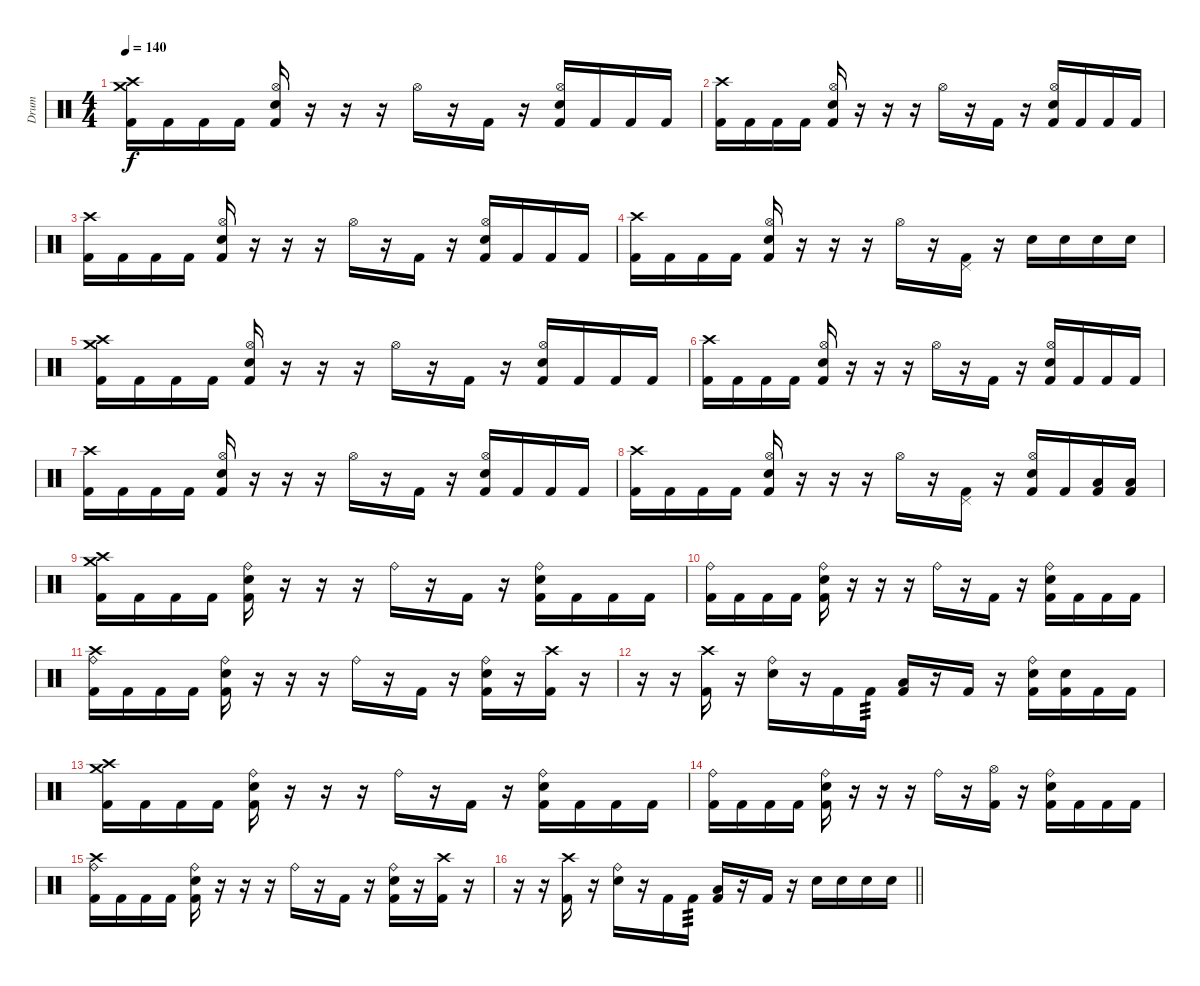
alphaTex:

\track ("Drum" "Drum") {instrument percussion}
\staff {score}
\articulation defaults
\ts (4 4)
\section ("" "")
\tempo 140
\clef neutral
\ks c
("Crash high (hit)" "Crash medium (hit)" "Kick (hit) 2").16{dy f} "Kick (hit) 2".16 "Kick (hit) 2".16 "Kick (hit) 2".16 ("Hi-Hat (open)" "Snare (hit) 2" "Kick (hit) 2").16 r.16 r.16 r.16 "Hi-Hat (open)".16 r.16 "Kick (hit) 2".16 r.16 ("Hi-Hat (open)" "Snare (hit) 2" "Kick (hit) 2").16 "Kick (hit) 2".16 "Kick (hit) 2".16 "Kick (hit) 2".16 |
("Crash high (hit)" "Kick (hit) 2").16 "Kick (hit) 2".16 "Kick (hit) 2".16 "Kick (hit) 2".16 ("Hi-Hat (open)" "Snare (hit) 2" "Kick (hit) 2").16 r.16 r.16 r.16 "Hi-Hat (open)".16 r.16 "Kick (hit) 2".16 r.16 ("Hi-Hat (open)" "Snare (hit) 2" "Kick (hit) 2").16 "Kick (hit) 2".16 "Kick (hit) 2".16 "Kick (hit) 2".16 |
("Crash high (hit)" "Kick (hit) 2").16 "Kick (hit) 2".16 "Kick (hit) 2".16 "Kick (hit) 2".16 ("Hi-Hat (open)" "Snare (hit) 2" "Kick (hit) 2").16 r.16 r.16 r.16 "Hi-Hat (open)".16 r.16 "Kick (hit) 2".16 r.16 ("Hi-Hat (open)" "Snare (hit) 2" "Kick (hit) 2").16 "Kick (hit) 2".16 "Kick (hit) 2".16 "Kick (hit) 2".16 |
("Crash high (hit)" "Kick (hit) 2").16 "Kick (hit) 2".16 "Kick (hit) 2".16 "Kick (hit) 2".16 ("Hi-Hat (open)" "Snare (hit) 2" "Kick (hit) 2").16 r.16 r.16 r.16 "Hi-Hat (open)".16 r.16 ("Pedal Hi-Hat (hit)" "Kick (hit) 2").16 r.16 "Snare (hit) 2".16 "Snare (hit) 2".16 "Snare (hit) 2".16 "Snare (hit) 2".16 |
("Crash high (hit)" "Crash medium (hit)" "Kick (hit) 2").16 "Kick (hit) 2".16 "Kick (hit) 2".16 "Kick (hit) 2".16 ("Hi-Hat (open)" "Snare (hit) 2" "Kick (hit) 2").16 r.16 r.16 r.16 "Hi-Hat (open)".16 r.16 "Kick (hit) 2".16 r.16 ("Hi-Hat (open)" "Snare (hit) 2" "Kick (hit) 2").16 "Kick (hit) 2".16 "Kick (hit) 2".16 "Kick (hit) 2".16 |
("Crash high (hit)" "Kick (hit) 2").16 "Kick (hit) 2".16 "Kick (hit) 2".16 "Kick (hit) 2".16 ("Hi-Hat (open)" "Snare (hit) 2" "Kick (hit) 2").16 r.16 r.16 r.16 "Hi-Hat (open)".16 r.16 "Kick (hit) 2".16 r.16 ("Hi-Hat (open)" "Snare (hit) 2" "Kick (hit) 2").16 "Kick (hit) 2".16 "Kick (hit) 2".16 "Kick (hit) 2".16 |
("Crash high (hit)" "Kick (hit) 2").16 "Kick (hit) 2".16 "Kick (hit) 2".16 "Kick (hit) 2".16 ("Hi-Hat (open)" "Snare (hit) 2" "Kick (hit) 2").16 r.16 r.16 r.16 "Hi-Hat (open)".16 r.16 "Kick (hit) 2".16 r.16 ("Hi-Hat (open)" "Snare (hit) 2" "Kick (hit) 2").16 "Kick (hit) 2".16 "Kick (hit) 2".16 "Kick (hit) 2".16 |
("Crash high (hit)" "Kick (hit) 2").16 "Kick (hit) 2".16 "Kick (hit) 2".16 "Kick (hit) 2".16 ("Hi-Hat (open)" "Snare (hit) 2" "Kick (hit) 2").16 r.16 r.16 r.16 "Hi-Hat (open)".16 r.16 ("Pedal Hi-Hat (hit)" "Kick (hit) 2").16 r.16 ("Hi-Hat (open)" "Snare (hit) 2" "Kick (hit) 2").16 "Kick (hit) 2".16 ("Low Tom (hit)" "Kick (hit) 2").16 ("Low Tom (hit)" "Kick (hit) 2").16 |
("Crash high (hit)" "Crash medium (hit)" "Kick (hit) 2").16 "Kick (hit) 2".16 "Kick (hit) 2".16 "Kick (hit) 2".16 ("Ride (bell)" "Snare (hit) 2" "Kick (hit) 2").16 r.16 r.16 r.16 "Ride (bell)".16 r.16 "Kick (hit) 2".16 r.16 ("Ride (bell)" "Snare (hit) 2" "Kick (hit) 2").16 "Kick (hit) 2".16 "Kick (hit) 2".16 "Kick (hit) 2".16 |
("Ride (bell)" "Kick (hit) 2").16 "Kick (hit) 2".16 "Kick (hit) 2".16 "Kick (hit) 2".16 ("Ride (bell)" "Snare (hit) 2" "Kick (hit) 2").16 r.16 r.16 r.16 "Ride (bell)".16 r.16 "Kick (hit) 2".16 r.16 ("Ride (bell)" "Snare (hit) 2" "Kick (hit) 2").16 "Kick (hit) 2".16 "Kick (hit) 2".16 "Kick (hit) 2".16 |
("Crash high (hit)" "Ride (bell)" "Kick (hit) 2").16 "Kick (hit) 2".16 "Kick (hit) 2".16 "Kick (hit) 2".16 ("Ride (bell)" "Snare (hit) 2" "Kick (hit) 2").16 r.16 r.16 r.16 "Ride (bell)".16 r.16 "Kick (hit) 2".16 r.16 ("Ride (bell)" "Snare (hit) 2" "Kick (hit) 2").16 r.16 ("Crash high (hit)" "Kick (hit) 2").16 r.16 |
r.16 r.16 ("Crash high (hit)" "Kick (hit) 2").16 r.16 ("Ride (bell)" "Snare (hit) 2").16 r.16 "Kick (hit) 2".16 "Kick (hit) 2".16{tp 3} ("Low Floor Tom (hit)" "Kick (hit) 2").16 r.16 "Kick (hit) 2".16 r.16 ("Ride (bell)" "Snare (hit) 2" "Kick (hit) 2").16 ("Snare (hit) 2" "Kick (hit) 2").16 "Kick (hit) 2".16 "Kick (hit) 2".16 |
("Crash high (hit)" "Crash medium (hit)" "Kick (hit) 2").16 "Kick (hit) 2".16 "Kick (hit) 2".16 "Kick (hit) 2".16 ("Ride (bell)" "Snare (hit) 2" "Kick (hit) 2").16 r.16 r.16 r.16 "Ride (bell)".16 r.16 "Kick (hit) 2".16 r.16 ("Ride (bell)" "Snare (hit) 2" "Kick (hit) 2").16 "Kick (hit) 2".16 "Kick (hit) 2".16 "Kick (hit) 2".16 |
("Ride (bell)" "Kick (hit) 2").16 "Kick (hit) 2".16 "Kick (hit) 2".16 "Kick (hit) 2".16 ("Ride (bell)" "Snare (hit) 2" "Kick (hit) 2").16 r.16 r.16 r.16 "Ride (bell)".16 r.16 ("Hi-Hat (open)" "Kick (hit) 2").16 r.16 ("Ride (bell)" "Snare (hit) 2" "Kick (hit) 2").16 "Kick (hit) 2".16 "Kick (hit) 2".16 "Kick (hit) 2".16 |
("Crash high (hit)" "Ride (bell)" "Kick (hit) 2").16 "Kick (hit) 2".16 "Kick (hit) 2".16 "Kick (hit) 2".16 ("Ride (bell)" "Snare (hit) 2" "Kick (hit) 2").16 r.16 r.16 r.16 "Ride (bell)".16 r.16 "Kick (hit) 2".16 r.16 ("Ride (bell)" "Snare (hit) 2" "Kick (hit) 2").16 r.16 ("Crash high (hit)" "Kick (hit) 2").16 r.16 |
\barLineRight lightlight
r.16 r.16 ("Crash high (hit)" "Kick (hit) 2").16 r.16 ("Ride (bell)" "Snare (hit) 2").16 r.16 "Kick (hit) 2".16 "Kick (hit) 2".16{tp 3} ("Low Floor Tom (hit)" "Kick (hit) 2").16 r.16 "Kick (hit) 2".16 r.16 "Snare (hit) 2".16 "Snare (hit) 2".16 "Snare (hit) 2".16 "Snare (hit) 2".16
